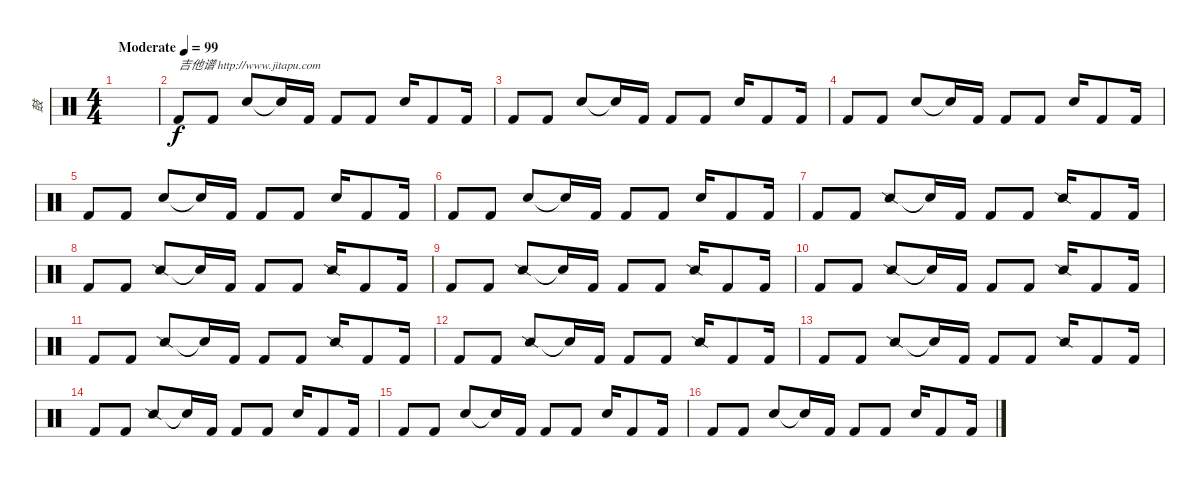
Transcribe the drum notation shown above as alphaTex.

\track ("鼓" "鼓") {instrument percussion}
\staff {score}
\articulation defaults
\ts (4 4)
\tempo (99 "Moderate")
\clef neutral
\ks c
|
"Kick (hit) 2".8{txt "吉他谱 http://www.jitapu.com"} "Kick (hit) 2".8 "Snare (hit) 2".8 "Snare (hit)"{t}.16 "Kick (hit) 2".16 "Kick (hit) 2".8 "Kick (hit) 2".8 "Snare (hit) 2".16 "Kick (hit) 2".8 "Kick (hit) 2".16 |
"Kick (hit) 2".8 "Kick (hit) 2".8 "Snare (hit) 2".8 "Snare (hit)"{t}.16 "Kick (hit) 2".16 "Kick (hit) 2".8 "Kick (hit) 2".8 "Snare (hit) 2".16 "Kick (hit) 2".8 "Kick (hit) 2".16 |
"Kick (hit) 2".8 "Kick (hit) 2".8 "Snare (hit) 2".8 "Snare (hit)"{t}.16 "Kick (hit) 2".16 "Kick (hit) 2".8 "Kick (hit) 2".8 "Snare (hit) 2".16 "Kick (hit) 2".8 "Kick (hit) 2".16 |
"Kick (hit) 2".8 "Kick (hit) 2".8 "Snare (hit) 2".8 "Snare (hit)"{t}.16 "Kick (hit) 2".16 "Kick (hit) 2".8 "Kick (hit) 2".8 "Snare (hit) 2".16 "Kick (hit) 2".8 "Kick (hit) 2".16 |
"Kick (hit) 2".8 "Kick (hit) 2".8 "Snare (hit) 2".8 "Snare (hit)"{t}.16 "Kick (hit) 2".16 "Kick (hit) 2".8 "Kick (hit) 2".8 "Snare (hit) 2".16 "Kick (hit) 2".8 "Kick (hit) 2".16 |
"Kick (hit) 2".8 "Kick (hit) 2".8 "Snare (side stick) 2".8 "Snare (hit)"{t}.16 "Kick (hit) 2".16 "Kick (hit) 2".8 "Kick (hit) 2".8 "Snare (side stick) 2".16 "Kick (hit) 2".8 "Kick (hit) 2".16 |
"Kick (hit) 2".8 "Kick (hit) 2".8 "Snare (side stick) 2".8 "Snare (hit)"{t}.16 "Kick (hit) 2".16 "Kick (hit) 2".8 "Kick (hit) 2".8 "Snare (side stick) 2".16 "Kick (hit) 2".8 "Kick (hit) 2".16 |
"Kick (hit) 2".8 "Kick (hit) 2".8 "Snare (side stick) 2".8 "Snare (hit)"{t}.16 "Kick (hit) 2".16 "Kick (hit) 2".8 "Kick (hit) 2".8 "Snare (side stick) 2".16 "Kick (hit) 2".8 "Kick (hit) 2".16 |
"Kick (hit) 2".8 "Kick (hit) 2".8 "Snare (side stick) 2".8 "Snare (hit)"{t}.16 "Kick (hit) 2".16 "Kick (hit) 2".8 "Kick (hit) 2".8 "Snare (side stick) 2".16 "Kick (hit) 2".8 "Kick (hit) 2".16 |
"Kick (hit) 2".8 "Kick (hit) 2".8 "Snare (side stick) 2".8 "Snare (hit)"{t}.16 "Kick (hit) 2".16 "Kick (hit) 2".8 "Kick (hit) 2".8 "Snare (side stick) 2".16 "Kick (hit) 2".8 "Kick (hit) 2".16 |
"Kick (hit) 2".8 "Kick (hit) 2".8 "Snare (side stick) 2".8 "Snare (hit)"{t}.16 "Kick (hit) 2".16 "Kick (hit) 2".8 "Kick (hit) 2".8 "Snare (side stick) 2".16 "Kick (hit) 2".8 "Kick (hit) 2".16 |
"Kick (hit) 2".8 "Kick (hit) 2".8 "Snare (side stick) 2".8 "Snare (hit)"{t}.16 "Kick (hit) 2".16 "Kick (hit) 2".8 "Kick (hit) 2".8 "Snare (side stick) 2".16 "Kick (hit) 2".8 "Kick (hit) 2".16 |
"Kick (hit) 2".8 "Kick (hit) 2".8 "Snare (side stick) 2".8 "Snare (hit)"{t}.16 "Kick (hit) 2".16 "Kick (hit) 2".8 "Kick (hit) 2".8 "Snare (hit) 2".16 "Kick (hit) 2".8 "Kick (hit) 2".16 |
"Kick (hit) 2".8 "Kick (hit) 2".8 "Snare (hit) 2".8 "Snare (hit)"{t}.16 "Kick (hit) 2".16 "Kick (hit) 2".8 "Kick (hit) 2".8 "Snare (hit) 2".16 "Kick (hit) 2".8 "Kick (hit) 2".16 |
"Kick (hit) 2".8 "Kick (hit) 2".8 "Snare (hit) 2".8 "Snare (hit)"{t}.16 "Kick (hit) 2".16 "Kick (hit) 2".8 "Kick (hit) 2".8 "Snare (hit) 2".16 "Kick (hit) 2".8 "Kick (hit) 2".16
